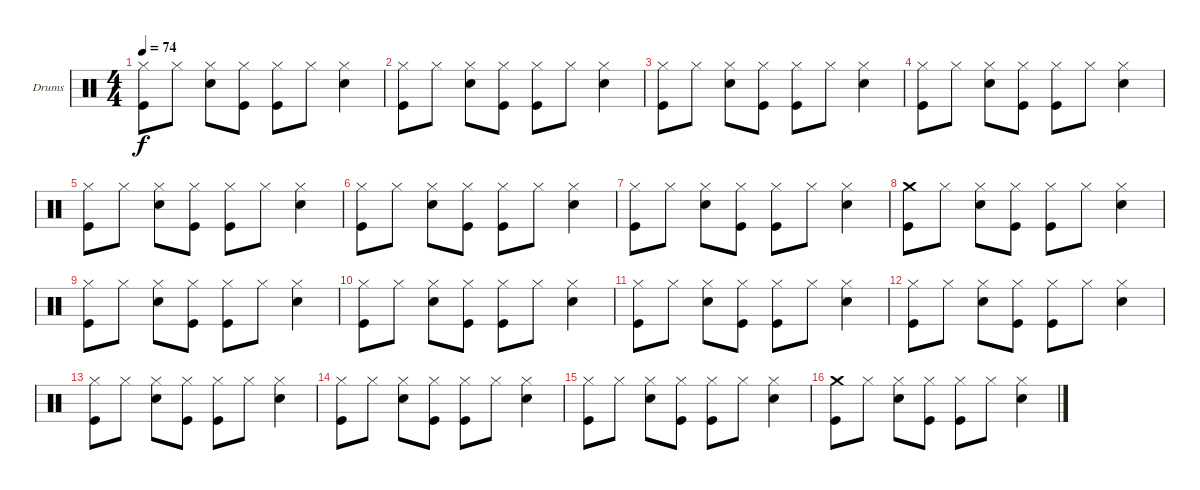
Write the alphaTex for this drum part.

\bracketExtendMode groupsimilarinstruments
\firstSystemTrackNameOrientation horizontal
\otherSystemsTrackNameOrientation horizontal
\track ("Drumkit" "Drums") {instrument percussion}
\staff {score}
\articulation defaults
\ts (4 4)
\tempo 74
\clef neutral
\ks c
("Kick (hit)" "Hi-Hat (closed)").8{dy f} "Hi-Hat (closed)".8 ("Snare (hit) 2" "Hi-Hat (closed)").8 ("Kick (hit)" "Hi-Hat (closed)").8 ("Kick (hit)" "Hi-Hat (closed)").8 "Hi-Hat (closed)".8 ("Snare (hit) 2" "Hi-Hat (closed)").4 |
("Kick (hit)" "Hi-Hat (closed)").8 "Hi-Hat (closed)".8 ("Snare (hit) 2" "Hi-Hat (closed)").8 ("Kick (hit)" "Hi-Hat (closed)").8 ("Kick (hit)" "Hi-Hat (closed)").8 "Hi-Hat (closed)".8 ("Snare (hit) 2" "Hi-Hat (closed)").4 |
("Kick (hit)" "Hi-Hat (closed)").8 "Hi-Hat (closed)".8 ("Snare (hit) 2" "Hi-Hat (closed)").8 ("Kick (hit)" "Hi-Hat (closed)").8 ("Kick (hit)" "Hi-Hat (closed)").8 "Hi-Hat (closed)".8 ("Snare (hit) 2" "Hi-Hat (closed)").4 |
("Kick (hit)" "Hi-Hat (closed)").8 "Hi-Hat (closed)".8 ("Snare (hit) 2" "Hi-Hat (closed)").8 ("Kick (hit)" "Hi-Hat (closed)").8 ("Kick (hit)" "Hi-Hat (closed)").8 "Hi-Hat (closed)".8 ("Snare (hit) 2" "Hi-Hat (closed)").4 |
("Kick (hit)" "Hi-Hat (closed)").8 "Hi-Hat (closed)".8 ("Snare (hit) 2" "Hi-Hat (closed)").8 ("Kick (hit)" "Hi-Hat (closed)").8 ("Kick (hit)" "Hi-Hat (closed)").8 "Hi-Hat (closed)".8 ("Snare (hit) 2" "Hi-Hat (closed)").4 |
("Kick (hit)" "Hi-Hat (closed)").8 "Hi-Hat (closed)".8 ("Snare (hit) 2" "Hi-Hat (closed)").8 ("Kick (hit)" "Hi-Hat (closed)").8 ("Kick (hit)" "Hi-Hat (closed)").8 "Hi-Hat (closed)".8 ("Snare (hit) 2" "Hi-Hat (closed)").4 |
("Kick (hit)" "Hi-Hat (closed)").8 "Hi-Hat (closed)".8 ("Snare (hit) 2" "Hi-Hat (closed)").8 ("Kick (hit)" "Hi-Hat (closed)").8 ("Kick (hit)" "Hi-Hat (closed)").8 "Hi-Hat (closed)".8 ("Snare (hit) 2" "Hi-Hat (closed)").4 |
("Kick (hit)" "Crash medium (hit)").8 "Hi-Hat (closed)".8 ("Snare (hit) 2" "Hi-Hat (closed)").8 ("Kick (hit)" "Hi-Hat (closed)").8 ("Kick (hit)" "Hi-Hat (closed)").8 "Hi-Hat (closed)".8 ("Snare (hit) 2" "Hi-Hat (closed)").4 |
("Kick (hit)" "Hi-Hat (closed)").8 "Hi-Hat (closed)".8 ("Snare (hit) 2" "Hi-Hat (closed)").8 ("Kick (hit)" "Hi-Hat (closed)").8 ("Kick (hit)" "Hi-Hat (closed)").8 "Hi-Hat (closed)".8 ("Snare (hit) 2" "Hi-Hat (closed)").4 |
("Kick (hit)" "Hi-Hat (closed)").8 "Hi-Hat (closed)".8 ("Snare (hit) 2" "Hi-Hat (closed)").8 ("Kick (hit)" "Hi-Hat (closed)").8 ("Kick (hit)" "Hi-Hat (closed)").8 "Hi-Hat (closed)".8 ("Snare (hit) 2" "Hi-Hat (closed)").4 |
("Kick (hit)" "Hi-Hat (closed)").8 "Hi-Hat (closed)".8 ("Snare (hit) 2" "Hi-Hat (closed)").8 ("Kick (hit)" "Hi-Hat (closed)").8 ("Kick (hit)" "Hi-Hat (closed)").8 "Hi-Hat (closed)".8 ("Snare (hit) 2" "Hi-Hat (closed)").4 |
("Kick (hit)" "Hi-Hat (closed)").8 "Hi-Hat (closed)".8 ("Snare (hit) 2" "Hi-Hat (closed)").8 ("Kick (hit)" "Hi-Hat (closed)").8 ("Kick (hit)" "Hi-Hat (closed)").8 "Hi-Hat (closed)".8 ("Snare (hit) 2" "Hi-Hat (closed)").4 |
("Kick (hit)" "Hi-Hat (closed)").8 "Hi-Hat (closed)".8 ("Snare (hit) 2" "Hi-Hat (closed)").8 ("Kick (hit)" "Hi-Hat (closed)").8 ("Kick (hit)" "Hi-Hat (closed)").8 "Hi-Hat (closed)".8 ("Snare (hit) 2" "Hi-Hat (closed)").4 |
("Kick (hit)" "Hi-Hat (closed)").8 "Hi-Hat (closed)".8 ("Snare (hit) 2" "Hi-Hat (closed)").8 ("Kick (hit)" "Hi-Hat (closed)").8 ("Kick (hit)" "Hi-Hat (closed)").8 "Hi-Hat (closed)".8 ("Snare (hit) 2" "Hi-Hat (closed)").4 |
("Kick (hit)" "Hi-Hat (closed)").8 "Hi-Hat (closed)".8 ("Snare (hit) 2" "Hi-Hat (closed)").8 ("Kick (hit)" "Hi-Hat (closed)").8 ("Kick (hit)" "Hi-Hat (closed)").8 "Hi-Hat (closed)".8 ("Snare (hit) 2" "Hi-Hat (closed)").4 |
("Kick (hit)" "Crash medium (hit)").8 "Hi-Hat (closed)".8 ("Snare (hit) 2" "Hi-Hat (closed)").8 ("Kick (hit)" "Hi-Hat (closed)").8 ("Kick (hit)" "Hi-Hat (closed)").8 "Hi-Hat (closed)".8 ("Snare (hit) 2" "Hi-Hat (closed)").4
